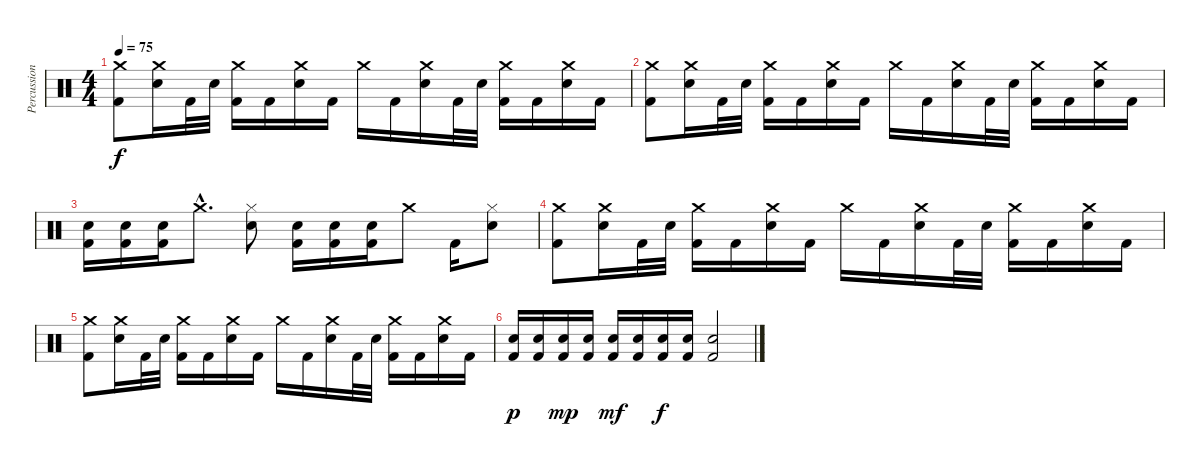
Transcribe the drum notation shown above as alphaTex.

\track ("Percussion" "Percussion") {instrument percussion}
\staff {score}
\articulation defaults
\ts (4 4)
\tempo 75
\clef neutral
\ks c
("Crash medium (hit)" "Kick (hit) 2").8{dy f} ("Crash medium (hit)" "Electric Snare (hit)").16 "Kick (hit) 2".32 "Electric Snare (hit)".32 ("Crash medium (hit)" "Kick (hit) 2").16 "Kick (hit) 2".16 ("Crash medium (hit)" "Electric Snare (hit)").16 "Kick (hit) 2".16 "Crash medium (hit)".16 "Kick (hit) 2".16 ("Crash medium (hit)" "Electric Snare (hit)").16 "Kick (hit) 2".32 "Electric Snare (hit)".32 ("Crash medium (hit)" "Kick (hit) 2").16 "Kick (hit) 2".16 ("Crash medium (hit)" "Electric Snare (hit)").16 "Kick (hit) 2".16 |
("Crash medium (hit)" "Kick (hit) 2").8 ("Crash medium (hit)" "Electric Snare (hit)").16 "Kick (hit) 2".32 "Electric Snare (hit)".32 ("Crash medium (hit)" "Kick (hit) 2").16 "Kick (hit) 2".16 ("Crash medium (hit)" "Electric Snare (hit)").16 "Kick (hit) 2".16 "Crash medium (hit)".16 "Kick (hit) 2".16 ("Crash medium (hit)" "Electric Snare (hit)").16 "Kick (hit) 2".32 "Electric Snare (hit)".32 ("Crash medium (hit)" "Kick (hit) 2").16 "Kick (hit) 2".16 ("Crash medium (hit)" "Electric Snare (hit)").16 "Kick (hit) 2".16 |
("Electric Snare (hit)" "Kick (hit) 2").16 ("Electric Snare (hit)" "Kick (hit) 2").16 ("Electric Snare (hit)" "Kick (hit) 2").16 "Crash medium (hit)"{hac}.8{d} ("Hi-Hat (closed)" "Electric Snare (hit)").8 ("Electric Snare (hit)" "Kick (hit) 2").16 ("Electric Snare (hit)" "Kick (hit) 2").16 ("Electric Snare (hit)" "Kick (hit) 2").16 "Crash medium (hit)".8 "Kick (hit) 2".16 ("Hi-Hat (closed)" "Electric Snare (hit)").8 |
("Crash medium (hit)" "Kick (hit) 2").8 ("Crash medium (hit)" "Electric Snare (hit)").16 "Kick (hit) 2".32 "Electric Snare (hit)".32 ("Crash medium (hit)" "Kick (hit) 2").16 "Kick (hit) 2".16 ("Crash medium (hit)" "Electric Snare (hit)").16 "Kick (hit) 2".16 "Crash medium (hit)".16 "Kick (hit) 2".16 ("Crash medium (hit)" "Electric Snare (hit)").16 "Kick (hit) 2".32 "Electric Snare (hit)".32 ("Crash medium (hit)" "Kick (hit) 2").16 "Kick (hit) 2".16 ("Crash medium (hit)" "Electric Snare (hit)").16 "Kick (hit) 2".16 |
("Crash medium (hit)" "Kick (hit) 2").8 ("Crash medium (hit)" "Electric Snare (hit)").16 "Kick (hit) 2".32 "Electric Snare (hit)".32 ("Crash medium (hit)" "Kick (hit) 2").16 "Kick (hit) 2".16 ("Crash medium (hit)" "Electric Snare (hit)").16 "Kick (hit) 2".16 "Crash medium (hit)".16 "Kick (hit) 2".16 ("Crash medium (hit)" "Electric Snare (hit)").16 "Kick (hit) 2".32 "Electric Snare (hit)".32 ("Crash medium (hit)" "Kick (hit) 2").16 "Kick (hit) 2".16 ("Crash medium (hit)" "Electric Snare (hit)").16 "Kick (hit) 2".16 |
("Electric Snare (hit)" "Kick (hit) 2").16{dy p} ("Electric Snare (hit)" "Kick (hit) 2").16 ("Electric Snare (hit)" "Kick (hit) 2").16{dy mp} ("Electric Snare (hit)" "Kick (hit) 2").16 ("Electric Snare (hit)" "Kick (hit) 2").16{dy mf} ("Electric Snare (hit)" "Kick (hit) 2").16 ("Electric Snare (hit)" "Kick (hit) 2").16{dy f} ("Electric Snare (hit)" "Kick (hit) 2").16 ("Electric Snare (hit)" "Kick (hit) 2").2
